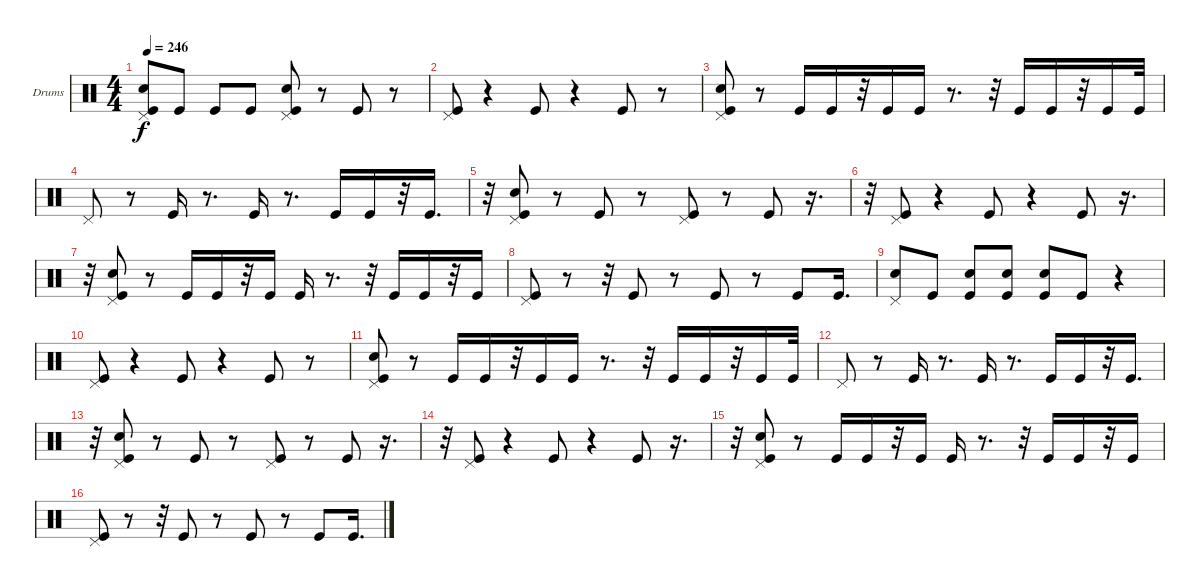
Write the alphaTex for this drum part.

\bracketExtendMode groupsimilarinstruments
\firstSystemTrackNameOrientation horizontal
\otherSystemsTrackNameOrientation horizontal
\track ("Drumkit" "Drums") {instrument percussion}
\staff {score}
\articulation defaults
\ts (4 4)
\tempo 246
\clef neutral
\ks c
("Kick (hit)" "Snare (hit) 2" "Pedal Hi-Hat (hit)").8{dy f} "Kick (hit)".8 "Kick (hit)".8 "Kick (hit)".8 ("Snare (hit) 2" "Pedal Hi-Hat (hit)" "Kick (hit)").8 r.8 "Kick (hit)".8 r.8 |
("Pedal Hi-Hat (hit)" "Kick (hit)").8 r.4 "Kick (hit)".8 r.4 "Kick (hit)".8 r.8 |
("Pedal Hi-Hat (hit)" "Snare (hit) 2" "Kick (hit)").8 r.8 "Kick (hit)".16 "Kick (hit)".16 r.32 "Kick (hit)".16 "Kick (hit)".16 r.8{d} r.32 "Kick (hit)".16 "Kick (hit)".16 r.32 "Kick (hit)".16 "Kick (hit)".32 |
"Pedal Hi-Hat (hit)".8 r.8 "Kick (hit)".16 r.8{d} "Kick (hit)".16 r.8{d} "Kick (hit)".16 "Kick (hit)".16 r.32 "Kick (hit)".16{d} |
r.32 ("Kick (hit)" "Snare (hit) 2" "Pedal Hi-Hat (hit)").8 r.8 "Kick (hit)".8 r.8 ("Pedal Hi-Hat (hit)" "Kick (hit)").8 r.8 "Kick (hit)".8 r.16{d} |
r.32 ("Pedal Hi-Hat (hit)" "Kick (hit)").8 r.4 "Kick (hit)".8 r.4 "Kick (hit)".8 r.16{d} |
r.32 ("Snare (hit) 2" "Pedal Hi-Hat (hit)" "Kick (hit)").8 r.8 "Kick (hit)".16 "Kick (hit)".16 r.32 "Kick (hit)".16 "Kick (hit)".16 r.8{d} r.32 "Kick (hit)".16 "Kick (hit)".16 r.32 "Kick (hit)".16 |
("Pedal Hi-Hat (hit)" "Kick (hit)").8 r.8 r.32 "Kick (hit)".8 r.8 "Kick (hit)".8 r.8 "Kick (hit)".8 "Kick (hit)".16{d} |
("Pedal Hi-Hat (hit)" "Snare (hit) 2").8 "Kick (hit)".8 ("Snare (hit) 2" "Kick (hit)").8 ("Snare (hit) 2" "Kick (hit)").8 ("Snare (hit) 2" "Kick (hit)").8 "Kick (hit)".8 r.4 |
("Kick (hit)" "Pedal Hi-Hat (hit)").8 r.4 "Kick (hit)".8 r.4 "Kick (hit)".8 r.8 |
("Pedal Hi-Hat (hit)" "Snare (hit) 2" "Kick (hit)").8 r.8 "Kick (hit)".16 "Kick (hit)".16 r.32 "Kick (hit)".16 "Kick (hit)".16 r.8{d} r.32 "Kick (hit)".16 "Kick (hit)".16 r.32 "Kick (hit)".16 "Kick (hit)".32 |
"Pedal Hi-Hat (hit)".8 r.8 "Kick (hit)".16 r.8{d} "Kick (hit)".16 r.8{d} "Kick (hit)".16 "Kick (hit)".16 r.32 "Kick (hit)".16{d} |
r.32 ("Kick (hit)" "Snare (hit) 2" "Pedal Hi-Hat (hit)").8 r.8 "Kick (hit)".8 r.8 ("Pedal Hi-Hat (hit)" "Kick (hit)").8 r.8 "Kick (hit)".8 r.16{d} |
r.32 ("Pedal Hi-Hat (hit)" "Kick (hit)").8 r.4 "Kick (hit)".8 r.4 "Kick (hit)".8 r.16{d} |
r.32 ("Snare (hit) 2" "Pedal Hi-Hat (hit)" "Kick (hit)").8 r.8 "Kick (hit)".16 "Kick (hit)".16 r.32 "Kick (hit)".16 "Kick (hit)".16 r.8{d} r.32 "Kick (hit)".16 "Kick (hit)".16 r.32 "Kick (hit)".16 |
("Pedal Hi-Hat (hit)" "Kick (hit)").8 r.8 r.32 "Kick (hit)".8 r.8 "Kick (hit)".8 r.8 "Kick (hit)".8 "Kick (hit)".16{d}
